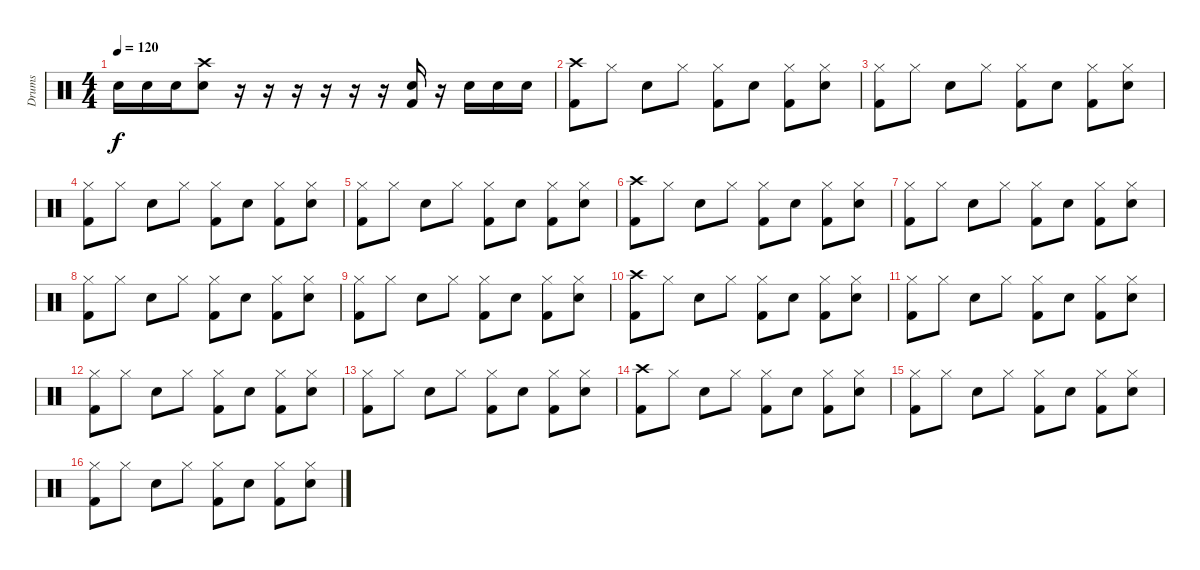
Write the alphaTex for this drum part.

\track ("Drums" "Drums") {instrument percussion}
\staff {score}
\articulation defaults
\ts (4 4)
\tempo 120
\clef neutral
\ks c "Snare (hit) 2".16{dy f} "Snare (hit) 2".16 "Snare (hit) 2".16
("Snare (hit) 2" "Crash high (hit)").8 r.16 r.16 r.16 r.16 r.16 r.16 ("Snare (hit) 2" "Kick (hit) 2").16 r.16 "Snare (hit) 2".16 "Snare (hit) 2".16 "Snare (hit) 2".16 |
("Kick (hit) 2" "Crash high (hit)").8 "Hi-Hat (closed)".8 "Snare (hit) 2".8 "Hi-Hat (closed)".8 ("Kick (hit) 2" "Hi-Hat (closed)").8 "Snare (hit) 2".8 ("Kick (hit) 2" "Hi-Hat (closed)").8 ("Snare (hit) 2" "Hi-Hat (closed)").8 |
("Kick (hit) 2" "Hi-Hat (closed)").8 "Hi-Hat (closed)".8 "Snare (hit) 2".8 "Hi-Hat (closed)".8 ("Kick (hit) 2" "Hi-Hat (closed)").8 "Snare (hit) 2".8 ("Kick (hit) 2" "Hi-Hat (closed)").8 ("Snare (hit) 2" "Hi-Hat (closed)").8 |
("Kick (hit) 2" "Hi-Hat (closed)").8 "Hi-Hat (closed)".8 "Snare (hit) 2".8 "Hi-Hat (closed)".8 ("Kick (hit) 2" "Hi-Hat (closed)").8 "Snare (hit) 2".8 ("Kick (hit) 2" "Hi-Hat (closed)").8 ("Snare (hit) 2" "Hi-Hat (closed)").8 |
("Kick (hit) 2" "Hi-Hat (closed)").8 "Hi-Hat (closed)".8 "Snare (hit) 2".8 "Hi-Hat (closed)".8 ("Kick (hit) 2" "Hi-Hat (closed)").8 "Snare (hit) 2".8 ("Kick (hit) 2" "Hi-Hat (closed)").8 ("Snare (hit) 2" "Hi-Hat (closed)").8 |
("Kick (hit) 2" "Crash high (hit)").8 "Hi-Hat (closed)".8 "Snare (hit) 2".8 "Hi-Hat (closed)".8 ("Kick (hit) 2" "Hi-Hat (closed)").8 "Snare (hit) 2".8 ("Kick (hit) 2" "Hi-Hat (closed)").8 ("Snare (hit) 2" "Hi-Hat (closed)").8 |
("Kick (hit) 2" "Hi-Hat (closed)").8 "Hi-Hat (closed)".8 "Snare (hit) 2".8 "Hi-Hat (closed)".8 ("Kick (hit) 2" "Hi-Hat (closed)").8 "Snare (hit) 2".8 ("Kick (hit) 2" "Hi-Hat (closed)").8 ("Snare (hit) 2" "Hi-Hat (closed)").8 |
("Kick (hit) 2" "Hi-Hat (closed)").8 "Hi-Hat (closed)".8 "Snare (hit) 2".8 "Hi-Hat (closed)".8 ("Kick (hit) 2" "Hi-Hat (closed)").8 "Snare (hit) 2".8 ("Kick (hit) 2" "Hi-Hat (closed)").8 ("Snare (hit) 2" "Hi-Hat (closed)").8 |
("Kick (hit) 2" "Hi-Hat (closed)").8 "Hi-Hat (closed)".8 "Snare (hit) 2".8 "Hi-Hat (closed)".8 ("Kick (hit) 2" "Hi-Hat (closed)").8 "Snare (hit) 2".8 ("Kick (hit) 2" "Hi-Hat (closed)").8 ("Snare (hit) 2" "Hi-Hat (closed)").8 |
("Kick (hit) 2" "Crash high (hit)").8 "Hi-Hat (closed)".8 "Snare (hit) 2".8 "Hi-Hat (closed)".8 ("Kick (hit) 2" "Hi-Hat (closed)").8 "Snare (hit) 2".8 ("Kick (hit) 2" "Hi-Hat (closed)").8 ("Snare (hit) 2" "Hi-Hat (closed)").8 |
("Kick (hit) 2" "Hi-Hat (closed)").8 "Hi-Hat (closed)".8 "Snare (hit) 2".8 "Hi-Hat (closed)".8 ("Kick (hit) 2" "Hi-Hat (closed)").8 "Snare (hit) 2".8 ("Kick (hit) 2" "Hi-Hat (closed)").8 ("Snare (hit) 2" "Hi-Hat (closed)").8 |
("Kick (hit) 2" "Hi-Hat (closed)").8 "Hi-Hat (closed)".8 "Snare (hit) 2".8 "Hi-Hat (closed)".8 ("Kick (hit) 2" "Hi-Hat (closed)").8 "Snare (hit) 2".8 ("Kick (hit) 2" "Hi-Hat (closed)").8 ("Snare (hit) 2" "Hi-Hat (closed)").8 |
("Kick (hit) 2" "Hi-Hat (closed)").8 "Hi-Hat (closed)".8 "Snare (hit) 2".8 "Hi-Hat (closed)".8 ("Kick (hit) 2" "Hi-Hat (closed)").8 "Snare (hit) 2".8 ("Kick (hit) 2" "Hi-Hat (closed)").8 ("Snare (hit) 2" "Hi-Hat (closed)").8 |
("Kick (hit) 2" "Crash high (hit)").8 "Hi-Hat (closed)".8 "Snare (hit) 2".8 "Hi-Hat (closed)".8 ("Kick (hit) 2" "Hi-Hat (closed)").8 "Snare (hit) 2".8 ("Kick (hit) 2" "Hi-Hat (closed)").8 ("Snare (hit) 2" "Hi-Hat (closed)").8 |
("Kick (hit) 2" "Hi-Hat (closed)").8 "Hi-Hat (closed)".8 "Snare (hit) 2".8 "Hi-Hat (closed)".8 ("Kick (hit) 2" "Hi-Hat (closed)").8 "Snare (hit) 2".8 ("Kick (hit) 2" "Hi-Hat (closed)").8 ("Snare (hit) 2" "Hi-Hat (closed)").8 |
("Kick (hit) 2" "Hi-Hat (closed)").8 "Hi-Hat (closed)".8 "Snare (hit) 2".8 "Hi-Hat (closed)".8 ("Kick (hit) 2" "Hi-Hat (closed)").8 "Snare (hit) 2".8 ("Kick (hit) 2" "Hi-Hat (closed)").8 ("Snare (hit) 2" "Hi-Hat (closed)").8
